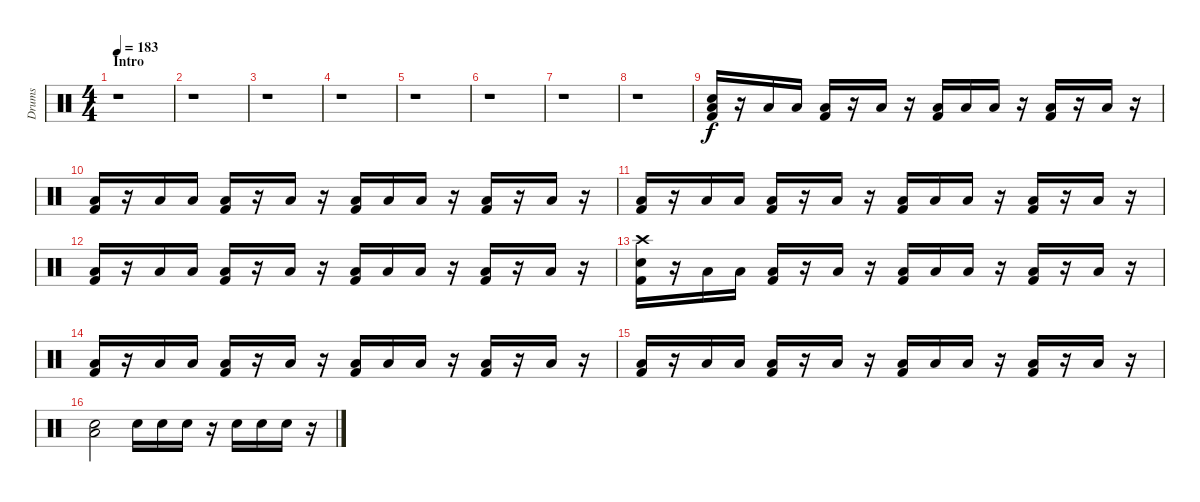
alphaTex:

\track ("Drums" "Drums") {instrument percussion}
\staff {score}
\articulation defaults
\ts (4 4)
\section ("" "Intro")
\tempo 183
\clef neutral
\ks c
r.1{dy f} |
r.1 |
r.1 |
r.1 |
r.1 |
r.1 |
r.1 |
r.1 |
("Electric Snare (hit)" "Low Floor Tom (hit)" "Kick (hit) 2").16 r.16 "Low Floor Tom (hit)".16 "Low Floor Tom (hit)".16 ("Low Floor Tom (hit)" "Kick (hit) 2").16 r.16 "Low Floor Tom (hit)".16 r.16 ("Low Floor Tom (hit)" "Kick (hit) 2").16 "Low Floor Tom (hit)".16 "Low Floor Tom (hit)".16 r.16 ("Low Floor Tom (hit)" "Kick (hit) 2").16 r.16 "Low Floor Tom (hit)".16 r.16 |
("Low Floor Tom (hit)" "Kick (hit) 2").16 r.16 "Low Floor Tom (hit)".16 "Low Floor Tom (hit)".16 ("Low Floor Tom (hit)" "Kick (hit) 2").16 r.16 "Low Floor Tom (hit)".16 r.16 ("Low Floor Tom (hit)" "Kick (hit) 2").16 "Low Floor Tom (hit)".16 "Low Floor Tom (hit)".16 r.16 ("Low Floor Tom (hit)" "Kick (hit) 2").16 r.16 "Low Floor Tom (hit)".16 r.16 |
("Low Floor Tom (hit)" "Kick (hit) 2").16 r.16 "Low Floor Tom (hit)".16 "Low Floor Tom (hit)".16 ("Low Floor Tom (hit)" "Kick (hit) 2").16 r.16 "Low Floor Tom (hit)".16 r.16 ("Low Floor Tom (hit)" "Kick (hit) 2").16 "Low Floor Tom (hit)".16 "Low Floor Tom (hit)".16 r.16 ("Low Floor Tom (hit)" "Kick (hit) 2").16 r.16 "Low Floor Tom (hit)".16 r.16 |
("Low Floor Tom (hit)" "Kick (hit) 2").16 r.16 "Low Floor Tom (hit)".16 "Low Floor Tom (hit)".16 ("Low Floor Tom (hit)" "Kick (hit) 2").16 r.16 "Low Floor Tom (hit)".16 r.16 ("Low Floor Tom (hit)" "Kick (hit) 2").16 "Low Floor Tom (hit)".16 "Low Floor Tom (hit)".16 r.16 ("Low Floor Tom (hit)" "Kick (hit) 2").16 r.16 "Low Floor Tom (hit)".16 r.16 |
("Crash high (hit)" "Electric Snare (hit)" "Kick (hit) 2").16 r.16 "Low Floor Tom (hit)".16 "Low Floor Tom (hit)".16 ("Low Floor Tom (hit)" "Kick (hit) 2").16 r.16 "Low Floor Tom (hit)".16 r.16 ("Low Floor Tom (hit)" "Kick (hit) 2").16 "Low Floor Tom (hit)".16 "Low Floor Tom (hit)".16 r.16 ("Low Floor Tom (hit)" "Kick (hit) 2").16 r.16 "Low Floor Tom (hit)".16 r.16 |
("Low Floor Tom (hit)" "Kick (hit) 2").16 r.16 "Low Floor Tom (hit)".16 "Low Floor Tom (hit)".16 ("Low Floor Tom (hit)" "Kick (hit) 2").16 r.16 "Low Floor Tom (hit)".16 r.16 ("Low Floor Tom (hit)" "Kick (hit) 2").16 "Low Floor Tom (hit)".16 "Low Floor Tom (hit)".16 r.16 ("Low Floor Tom (hit)" "Kick (hit) 2").16 r.16 "Low Floor Tom (hit)".16 r.16 |
("Low Floor Tom (hit)" "Kick (hit) 2").16 r.16 "Low Floor Tom (hit)".16 "Low Floor Tom (hit)".16 ("Low Floor Tom (hit)" "Kick (hit) 2").16 r.16 "Low Floor Tom (hit)".16 r.16 ("Low Floor Tom (hit)" "Kick (hit) 2").16 "Low Floor Tom (hit)".16 "Low Floor Tom (hit)".16 r.16 ("Low Floor Tom (hit)" "Kick (hit) 2").16 r.16 "Low Floor Tom (hit)".16 r.16 |
("Electric Snare (hit)" "Low Floor Tom (hit)").2 "Electric Snare (hit)".16 "Electric Snare (hit)".16 "Electric Snare (hit)".16 r.16 "Electric Snare (hit)".16 "Electric Snare (hit)".16 "Electric Snare (hit)".16 r.16
